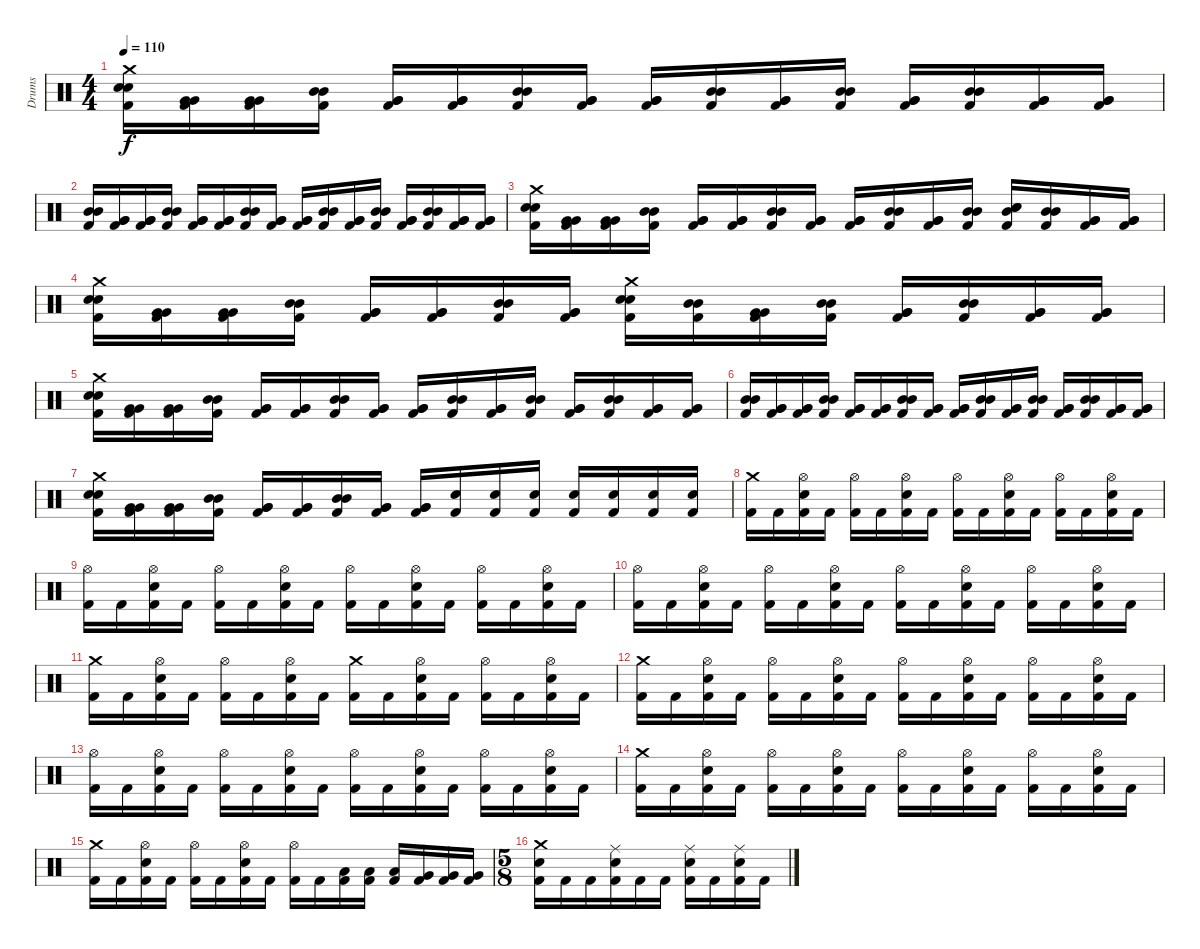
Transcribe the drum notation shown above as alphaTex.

\track ("Drums" "Drums") {instrument percussion}
\staff {score}
\articulation defaults
\ts (4 4)
\tempo 110
\clef neutral
\ks c
("Crash medium (hit)" "Electric Snare (hit)" "Electric Snare (hit)" "Kick (hit) 2").16{dy f} ("Very Low Tom (hit)" "Very Low Tom (hit)" "Kick (hit) 2").16 ("Very Low Tom (hit)" "Very Low Tom (hit)" "Kick (hit) 2").16 ("Mid Tom (hit)" "Mid Tom (hit)" "Kick (hit) 2").16 ("Very Low Tom (hit)" "Very Low Tom (hit)" "Kick (hit) 2").16 ("Very Low Tom (hit)" "Very Low Tom (hit)" "Kick (hit) 2").16 ("Mid Tom (hit)" "Mid Tom (hit)" "Kick (hit) 2").16 ("Very Low Tom (hit)" "Very Low Tom (hit)" "Kick (hit) 2").16 ("Very Low Tom (hit)" "Very Low Tom (hit)" "Kick (hit) 2").16 ("Mid Tom (hit)" "Mid Tom (hit)" "Kick (hit) 2").16 ("Very Low Tom (hit)" "Very Low Tom (hit)" "Kick (hit) 2").16 ("Mid Tom (hit)" "Mid Tom (hit)" "Kick (hit) 2").16 ("Very Low Tom (hit)" "Very Low Tom (hit)" "Kick (hit) 2").16 ("Mid Tom (hit)" "Mid Tom (hit)" "Kick (hit) 2").16 ("Very Low Tom (hit)" "Very Low Tom (hit)" "Kick (hit) 2").16 ("Very Low Tom (hit)" "Very Low Tom (hit)" "Kick (hit) 2").16 |
("Mid Tom (hit)" "Mid Tom (hit)" "Kick (hit) 2").16 ("Very Low Tom (hit)" "Very Low Tom (hit)" "Kick (hit) 2").16 ("Very Low Tom (hit)" "Very Low Tom (hit)" "Kick (hit) 2").16 ("Mid Tom (hit)" "Mid Tom (hit)" "Kick (hit) 2").16 ("Very Low Tom (hit)" "Very Low Tom (hit)" "Kick (hit) 2").16 ("Very Low Tom (hit)" "Very Low Tom (hit)" "Kick (hit) 2").16 ("Mid Tom (hit)" "Mid Tom (hit)" "Kick (hit) 2").16 ("Very Low Tom (hit)" "Very Low Tom (hit)" "Kick (hit) 2").16 ("Very Low Tom (hit)" "Very Low Tom (hit)" "Kick (hit) 2").16 ("Mid Tom (hit)" "Mid Tom (hit)" "Kick (hit) 2").16 ("Very Low Tom (hit)" "Very Low Tom (hit)" "Kick (hit) 2").16 ("Mid Tom (hit)" "Mid Tom (hit)" "Kick (hit) 2").16 ("Very Low Tom (hit)" "Very Low Tom (hit)" "Kick (hit) 2").16 ("Mid Tom (hit)" "Mid Tom (hit)" "Kick (hit) 2").16 ("Very Low Tom (hit)" "Very Low Tom (hit)" "Kick (hit) 2").16 ("Very Low Tom (hit)" "Very Low Tom (hit)" "Kick (hit) 2").16 |
("Crash medium (hit)" "Electric Snare (hit)" "Electric Snare (hit)" "Kick (hit) 2").16 ("Very Low Tom (hit)" "Very Low Tom (hit)" "Kick (hit) 2").16 ("Very Low Tom (hit)" "Very Low Tom (hit)" "Kick (hit) 2").16 ("Mid Tom (hit)" "Mid Tom (hit)" "Kick (hit) 2").16 ("Very Low Tom (hit)" "Very Low Tom (hit)" "Kick (hit) 2").16 ("Very Low Tom (hit)" "Very Low Tom (hit)" "Kick (hit) 2").16 ("Mid Tom (hit)" "Mid Tom (hit)" "Kick (hit) 2").16 ("Very Low Tom (hit)" "Very Low Tom (hit)" "Kick (hit) 2").16 ("Very Low Tom (hit)" "Very Low Tom (hit)" "Kick (hit) 2").16 ("Mid Tom (hit)" "Mid Tom (hit)" "Kick (hit) 2").16 ("Very Low Tom (hit)" "Very Low Tom (hit)" "Kick (hit) 2").16 ("Mid Tom (hit)" "Mid Tom (hit)" "Kick (hit) 2").16 ("Mid Tom (hit)" "Electric Snare (hit)" "Electric Snare (hit)" "Kick (hit) 2").16 ("Mid Tom (hit)" "Mid Tom (hit)" "Kick (hit) 2").16 ("Very Low Tom (hit)" "Very Low Tom (hit)" "Kick (hit) 2").16 ("Very Low Tom (hit)" "Very Low Tom (hit)" "Kick (hit) 2").16 |
("Crash medium (hit)" "Electric Snare (hit)" "Electric Snare (hit)" "Kick (hit) 2").16 ("Very Low Tom (hit)" "Very Low Tom (hit)" "Kick (hit) 2").16 ("Very Low Tom (hit)" "Very Low Tom (hit)" "Kick (hit) 2").16 ("Mid Tom (hit)" "Mid Tom (hit)" "Kick (hit) 2").16 ("Very Low Tom (hit)" "Very Low Tom (hit)" "Kick (hit) 2").16 ("Very Low Tom (hit)" "Very Low Tom (hit)" "Kick (hit) 2").16 ("Mid Tom (hit)" "Mid Tom (hit)" "Kick (hit) 2").16 ("Very Low Tom (hit)" "Very Low Tom (hit)" "Kick (hit) 2").16 ("Crash medium (hit)" "Electric Snare (hit)" "Electric Snare (hit)" "Kick (hit) 2").16 ("Mid Tom (hit)" "Mid Tom (hit)" "Kick (hit) 2").16 ("Very Low Tom (hit)" "Very Low Tom (hit)" "Kick (hit) 2").16 ("Mid Tom (hit)" "Mid Tom (hit)" "Kick (hit) 2").16 ("Very Low Tom (hit)" "Very Low Tom (hit)" "Kick (hit) 2").16 ("Mid Tom (hit)" "Mid Tom (hit)" "Kick (hit) 2").16 ("Very Low Tom (hit)" "Very Low Tom (hit)" "Kick (hit) 2").16 ("Very Low Tom (hit)" "Very Low Tom (hit)" "Kick (hit) 2").16 |
("Crash medium (hit)" "Electric Snare (hit)" "Electric Snare (hit)" "Kick (hit) 2").16 ("Very Low Tom (hit)" "Very Low Tom (hit)" "Kick (hit) 2").16 ("Very Low Tom (hit)" "Very Low Tom (hit)" "Kick (hit) 2").16 ("Mid Tom (hit)" "Mid Tom (hit)" "Kick (hit) 2").16 ("Very Low Tom (hit)" "Very Low Tom (hit)" "Kick (hit) 2").16 ("Very Low Tom (hit)" "Very Low Tom (hit)" "Kick (hit) 2").16 ("Mid Tom (hit)" "Mid Tom (hit)" "Kick (hit) 2").16 ("Very Low Tom (hit)" "Very Low Tom (hit)" "Kick (hit) 2").16 ("Very Low Tom (hit)" "Very Low Tom (hit)" "Kick (hit) 2").16 ("Mid Tom (hit)" "Mid Tom (hit)" "Kick (hit) 2").16 ("Very Low Tom (hit)" "Very Low Tom (hit)" "Kick (hit) 2").16 ("Mid Tom (hit)" "Mid Tom (hit)" "Kick (hit) 2").16 ("Very Low Tom (hit)" "Very Low Tom (hit)" "Kick (hit) 2").16 ("Mid Tom (hit)" "Mid Tom (hit)" "Kick (hit) 2").16 ("Very Low Tom (hit)" "Very Low Tom (hit)" "Kick (hit) 2").16 ("Very Low Tom (hit)" "Very Low Tom (hit)" "Kick (hit) 2").16 |
("Mid Tom (hit)" "Mid Tom (hit)" "Kick (hit) 2").16 ("Very Low Tom (hit)" "Very Low Tom (hit)" "Kick (hit) 2").16 ("Very Low Tom (hit)" "Very Low Tom (hit)" "Kick (hit) 2").16 ("Mid Tom (hit)" "Mid Tom (hit)" "Kick (hit) 2").16 ("Very Low Tom (hit)" "Very Low Tom (hit)" "Kick (hit) 2").16 ("Very Low Tom (hit)" "Very Low Tom (hit)" "Kick (hit) 2").16 ("Mid Tom (hit)" "Mid Tom (hit)" "Kick (hit) 2").16 ("Very Low Tom (hit)" "Very Low Tom (hit)" "Kick (hit) 2").16 ("Very Low Tom (hit)" "Very Low Tom (hit)" "Kick (hit) 2").16 ("Mid Tom (hit)" "Mid Tom (hit)" "Kick (hit) 2").16 ("Very Low Tom (hit)" "Very Low Tom (hit)" "Kick (hit) 2").16 ("Mid Tom (hit)" "Mid Tom (hit)" "Kick (hit) 2").16 ("Very Low Tom (hit)" "Very Low Tom (hit)" "Kick (hit) 2").16 ("Mid Tom (hit)" "Mid Tom (hit)" "Kick (hit) 2").16 ("Very Low Tom (hit)" "Very Low Tom (hit)" "Kick (hit) 2").16 ("Very Low Tom (hit)" "Very Low Tom (hit)" "Kick (hit) 2").16 |
("Crash medium (hit)" "Electric Snare (hit)" "Electric Snare (hit)" "Kick (hit) 2").16 ("Very Low Tom (hit)" "Very Low Tom (hit)" "Kick (hit) 2").16 ("Very Low Tom (hit)" "Very Low Tom (hit)" "Kick (hit) 2").16 ("Mid Tom (hit)" "Mid Tom (hit)" "Kick (hit) 2").16 ("Very Low Tom (hit)" "Very Low Tom (hit)" "Kick (hit) 2").16 ("Very Low Tom (hit)" "Very Low Tom (hit)" "Kick (hit) 2").16 ("Mid Tom (hit)" "Mid Tom (hit)" "Kick (hit) 2").16 ("Very Low Tom (hit)" "Very Low Tom (hit)" "Kick (hit) 2").16 ("Very Low Tom (hit)" "Very Low Tom (hit)" "Kick (hit) 2").16 ("Electric Snare (hit)" "Kick (hit) 2").16 ("Electric Snare (hit)" "Kick (hit) 2").16 ("Electric Snare (hit)" "Kick (hit) 2").16 ("Electric Snare (hit)" "Kick (hit) 2").16 ("Electric Snare (hit)" "Kick (hit) 2").16 ("Electric Snare (hit)" "Kick (hit) 2").16 ("Electric Snare (hit)" "Kick (hit) 2").16 |
("Crash medium (hit)" "Kick (hit) 2").16 "Kick (hit) 2".16 ("Hi-Hat (open)" "Electric Snare (hit)" "Kick (hit) 2").16 "Kick (hit) 2".16 ("Hi-Hat (open)" "Kick (hit) 2").16 "Kick (hit) 2".16 ("Hi-Hat (open)" "Electric Snare (hit)" "Kick (hit) 2").16 "Kick (hit) 2".16 ("Hi-Hat (open)" "Kick (hit) 2").16 "Kick (hit) 2".16 ("Hi-Hat (open)" "Electric Snare (hit)" "Kick (hit) 2").16 "Kick (hit) 2".16 ("Hi-Hat (open)" "Kick (hit) 2").16 "Kick (hit) 2".16 ("Hi-Hat (open)" "Electric Snare (hit)" "Kick (hit) 2").16 "Kick (hit) 2".16 |
("Hi-Hat (open)" "Kick (hit) 2").16 "Kick (hit) 2".16 ("Hi-Hat (open)" "Electric Snare (hit)" "Kick (hit) 2").16 "Kick (hit) 2".16 ("Hi-Hat (open)" "Kick (hit) 2").16 "Kick (hit) 2".16 ("Hi-Hat (open)" "Electric Snare (hit)" "Kick (hit) 2").16 "Kick (hit) 2".16 ("Hi-Hat (open)" "Kick (hit) 2").16 "Kick (hit) 2".16 ("Hi-Hat (open)" "Electric Snare (hit)" "Kick (hit) 2").16 "Kick (hit) 2".16 ("Hi-Hat (open)" "Kick (hit) 2").16 "Kick (hit) 2".16 ("Hi-Hat (open)" "Electric Snare (hit)" "Kick (hit) 2").16 "Kick (hit) 2".16 |
("Hi-Hat (open)" "Kick (hit) 2").16 "Kick (hit) 2".16 ("Hi-Hat (open)" "Electric Snare (hit)" "Kick (hit) 2").16 "Kick (hit) 2".16 ("Hi-Hat (open)" "Kick (hit) 2").16 "Kick (hit) 2".16 ("Hi-Hat (open)" "Electric Snare (hit)" "Kick (hit) 2").16 "Kick (hit) 2".16 ("Hi-Hat (open)" "Kick (hit) 2").16 "Kick (hit) 2".16 ("Hi-Hat (open)" "Electric Snare (hit)" "Kick (hit) 2").16 "Kick (hit) 2".16 ("Hi-Hat (open)" "Kick (hit) 2").16 "Kick (hit) 2".16 ("Hi-Hat (open)" "Electric Snare (hit)" "Kick (hit) 2").16 "Kick (hit) 2".16 |
("Crash medium (hit)" "Kick (hit) 2").16 "Kick (hit) 2".16 ("Hi-Hat (open)" "Electric Snare (hit)" "Kick (hit) 2").16 "Kick (hit) 2".16 ("Hi-Hat (open)" "Kick (hit) 2").16 "Kick (hit) 2".16 ("Hi-Hat (open)" "Electric Snare (hit)" "Kick (hit) 2").16 "Kick (hit) 2".16 ("Crash medium (hit)" "Kick (hit) 2").16 "Kick (hit) 2".16 ("Hi-Hat (open)" "Electric Snare (hit)" "Kick (hit) 2").16 "Kick (hit) 2".16 ("Hi-Hat (open)" "Kick (hit) 2").16 "Kick (hit) 2".16 ("Hi-Hat (open)" "Electric Snare (hit)" "Kick (hit) 2").16 "Kick (hit) 2".16 |
("Crash medium (hit)" "Kick (hit) 2").16 "Kick (hit) 2".16 ("Hi-Hat (open)" "Electric Snare (hit)" "Kick (hit) 2").16 "Kick (hit) 2".16 ("Hi-Hat (open)" "Kick (hit) 2").16 "Kick (hit) 2".16 ("Hi-Hat (open)" "Electric Snare (hit)" "Kick (hit) 2").16 "Kick (hit) 2".16 ("Hi-Hat (open)" "Kick (hit) 2").16 "Kick (hit) 2".16 ("Hi-Hat (open)" "Electric Snare (hit)" "Kick (hit) 2").16 "Kick (hit) 2".16 ("Hi-Hat (open)" "Kick (hit) 2").16 "Kick (hit) 2".16 ("Hi-Hat (open)" "Electric Snare (hit)" "Kick (hit) 2").16 "Kick (hit) 2".16 |
("Hi-Hat (open)" "Kick (hit) 2").16 "Kick (hit) 2".16 ("Hi-Hat (open)" "Electric Snare (hit)" "Kick (hit) 2").16 "Kick (hit) 2".16 ("Hi-Hat (open)" "Kick (hit) 2").16 "Kick (hit) 2".16 ("Hi-Hat (open)" "Electric Snare (hit)" "Kick (hit) 2").16 "Kick (hit) 2".16 ("Hi-Hat (open)" "Kick (hit) 2").16 "Kick (hit) 2".16 ("Hi-Hat (open)" "Electric Snare (hit)" "Kick (hit) 2").16 "Kick (hit) 2".16 ("Hi-Hat (open)" "Kick (hit) 2").16 "Kick (hit) 2".16 ("Hi-Hat (open)" "Electric Snare (hit)" "Kick (hit) 2").16 "Kick (hit) 2".16 |
("Crash medium (hit)" "Kick (hit) 2").16 "Kick (hit) 2".16 ("Hi-Hat (open)" "Electric Snare (hit)" "Kick (hit) 2").16 "Kick (hit) 2".16 ("Hi-Hat (open)" "Kick (hit) 2").16 "Kick (hit) 2".16 ("Hi-Hat (open)" "Electric Snare (hit)" "Kick (hit) 2").16 "Kick (hit) 2".16 ("Hi-Hat (open)" "Kick (hit) 2").16 "Kick (hit) 2".16 ("Hi-Hat (open)" "Electric Snare (hit)" "Kick (hit) 2").16 "Kick (hit) 2".16 ("Hi-Hat (open)" "Kick (hit) 2").16 "Kick (hit) 2".16 ("Hi-Hat (open)" "Electric Snare (hit)" "Kick (hit) 2").16 "Kick (hit) 2".16 |
("Crash medium (hit)" "Kick (hit) 2").16 "Kick (hit) 2".16 ("Hi-Hat (open)" "Electric Snare (hit)" "Kick (hit) 2").16 "Kick (hit) 2".16 ("Hi-Hat (open)" "Kick (hit) 2").16 "Kick (hit) 2".16 ("Hi-Hat (open)" "Electric Snare (hit)" "Kick (hit) 2").16 "Kick (hit) 2".16 ("Hi-Hat (open)" "Kick (hit) 2").16 "Kick (hit) 2".16 ("Low Tom (hit)" "Kick (hit) 2").16 ("Low Tom (hit)" "Kick (hit) 2").16 ("Low Tom (hit)" "Kick (hit) 2").16 ("Very Low Tom (hit)" "Kick (hit) 2").16 ("Very Low Tom (hit)" "Kick (hit) 2").16 ("Very Low Tom (hit)" "Kick (hit) 2").16 |
\ts (5 8)
("Crash medium (hit)" "Electric Snare (hit)" "Kick (hit) 2").16 "Kick (hit) 2".16 "Kick (hit) 2".16 ("Ride (middle)" "Electric Snare (hit)" "Kick (hit) 2").16 "Kick (hit) 2".16 "Kick (hit) 2".16 ("Ride (middle)" "Electric Snare (hit)" "Kick (hit) 2").16 "Kick (hit) 2".16 ("Ride (middle)" "Electric Snare (hit)" "Kick (hit) 2").16 "Kick (hit) 2".16
